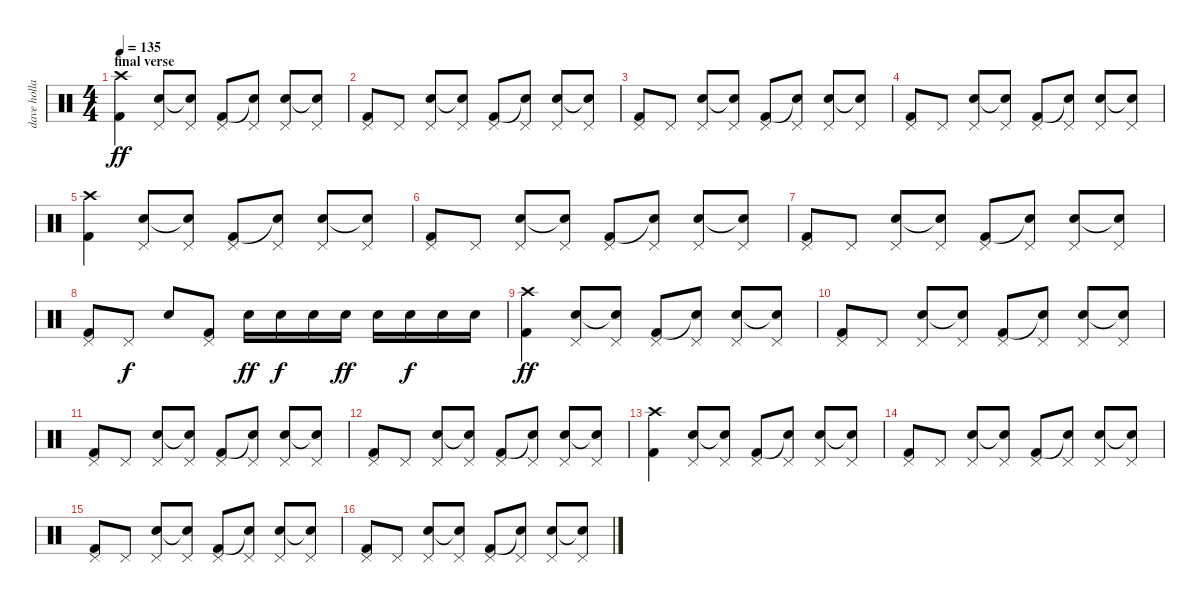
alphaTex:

\track ("dave holland" "dave holla") {instrument percussion}
\staff {score}
\articulation defaults
\ts (4 4)
\section ("" "final verse")
\tempo 135
\clef neutral
\ks c
("Crash high (hit)" "Kick (hit) 2").4{dy ff} ("Pedal Hi-Hat (hit)" "Electric Snare (hit)").8 ("Pedal Hi-Hat (hit)" "Electric Snare (hit)"{t}).8 ("Pedal Hi-Hat (hit)" "Kick (hit) 2").8 ("Pedal Hi-Hat (hit)" "Snare (hit)"{t}).8 ("Pedal Hi-Hat (hit)" "Electric Snare (hit)").8 ("Pedal Hi-Hat (hit)" "Snare (hit)"{t}).8 |
("Pedal Hi-Hat (hit)" "Kick (hit) 2").8 "Pedal Hi-Hat (hit)".8 ("Pedal Hi-Hat (hit)" "Electric Snare (hit)").8 ("Pedal Hi-Hat (hit)" "Electric Snare (hit)"{t}).8 ("Pedal Hi-Hat (hit)" "Kick (hit) 2").8 ("Pedal Hi-Hat (hit)" "Snare (hit)"{t}).8 ("Pedal Hi-Hat (hit)" "Electric Snare (hit)").8 ("Pedal Hi-Hat (hit)" "Snare (hit)"{t}).8 |
("Pedal Hi-Hat (hit)" "Kick (hit) 2").8 "Pedal Hi-Hat (hit)".8 ("Pedal Hi-Hat (hit)" "Electric Snare (hit)").8 ("Pedal Hi-Hat (hit)" "Electric Snare (hit)"{t}).8 ("Pedal Hi-Hat (hit)" "Kick (hit) 2").8 ("Pedal Hi-Hat (hit)" "Snare (hit)"{t}).8 ("Pedal Hi-Hat (hit)" "Electric Snare (hit)").8 ("Pedal Hi-Hat (hit)" "Snare (hit)"{t}).8 |
("Pedal Hi-Hat (hit)" "Kick (hit) 2").8 "Pedal Hi-Hat (hit)".8 ("Pedal Hi-Hat (hit)" "Electric Snare (hit)").8 ("Pedal Hi-Hat (hit)" "Electric Snare (hit)"{t}).8 ("Pedal Hi-Hat (hit)" "Kick (hit) 2").8 ("Pedal Hi-Hat (hit)" "Snare (hit)"{t}).8 ("Pedal Hi-Hat (hit)" "Electric Snare (hit)").8 ("Pedal Hi-Hat (hit)" "Snare (hit)"{t}).8 |
("Crash high (hit)" "Kick (hit) 2").4 ("Pedal Hi-Hat (hit)" "Electric Snare (hit)").8 ("Pedal Hi-Hat (hit)" "Electric Snare (hit)"{t}).8 ("Pedal Hi-Hat (hit)" "Kick (hit) 2").8 ("Pedal Hi-Hat (hit)" "Snare (hit)"{t}).8 ("Pedal Hi-Hat (hit)" "Electric Snare (hit)").8 ("Pedal Hi-Hat (hit)" "Snare (hit)"{t}).8 |
("Pedal Hi-Hat (hit)" "Kick (hit) 2").8 "Pedal Hi-Hat (hit)".8 ("Pedal Hi-Hat (hit)" "Electric Snare (hit)").8 ("Pedal Hi-Hat (hit)" "Electric Snare (hit)"{t}).8 ("Pedal Hi-Hat (hit)" "Kick (hit) 2").8 ("Pedal Hi-Hat (hit)" "Snare (hit)"{t}).8 ("Pedal Hi-Hat (hit)" "Electric Snare (hit)").8 ("Pedal Hi-Hat (hit)" "Snare (hit)"{t}).8 |
("Pedal Hi-Hat (hit)" "Kick (hit) 2").8 "Pedal Hi-Hat (hit)".8 ("Pedal Hi-Hat (hit)" "Electric Snare (hit)").8 ("Pedal Hi-Hat (hit)" "Electric Snare (hit)"{t}).8 ("Pedal Hi-Hat (hit)" "Kick (hit) 2").8 ("Pedal Hi-Hat (hit)" "Snare (hit)"{t}).8 ("Pedal Hi-Hat (hit)" "Electric Snare (hit)").8 ("Pedal Hi-Hat (hit)" "Snare (hit)"{t}).8 |
("Pedal Hi-Hat (hit)" "Kick (hit) 2").8 "Pedal Hi-Hat (hit)".8{dy f} "Electric Snare (hit)".8 ("Pedal Hi-Hat (hit)" "Kick (hit) 2").8 "Electric Snare (hit)".16{dy ff} "Electric Snare (hit)".16{dy f} "Electric Snare (hit)".16 "Electric Snare (hit)".16{dy ff} "Electric Snare (hit)".16 "Electric Snare (hit)".16{dy f} "Electric Snare (hit)".16 "Electric Snare (hit)".16 |
("Crash high (hit)" "Kick (hit) 2").4{dy ff} ("Pedal Hi-Hat (hit)" "Electric Snare (hit)").8 ("Pedal Hi-Hat (hit)" "Electric Snare (hit)"{t}).8 ("Pedal Hi-Hat (hit)" "Kick (hit) 2").8 ("Pedal Hi-Hat (hit)" "Snare (hit)"{t}).8 ("Pedal Hi-Hat (hit)" "Electric Snare (hit)").8 ("Pedal Hi-Hat (hit)" "Snare (hit)"{t}).8 |
("Pedal Hi-Hat (hit)" "Kick (hit) 2").8 "Pedal Hi-Hat (hit)".8 ("Pedal Hi-Hat (hit)" "Electric Snare (hit)").8 ("Pedal Hi-Hat (hit)" "Electric Snare (hit)"{t}).8 ("Pedal Hi-Hat (hit)" "Kick (hit) 2").8 ("Pedal Hi-Hat (hit)" "Snare (hit)"{t}).8 ("Pedal Hi-Hat (hit)" "Electric Snare (hit)").8 ("Pedal Hi-Hat (hit)" "Snare (hit)"{t}).8 |
("Pedal Hi-Hat (hit)" "Kick (hit) 2").8 "Pedal Hi-Hat (hit)".8 ("Pedal Hi-Hat (hit)" "Electric Snare (hit)").8 ("Pedal Hi-Hat (hit)" "Electric Snare (hit)"{t}).8 ("Pedal Hi-Hat (hit)" "Kick (hit) 2").8 ("Pedal Hi-Hat (hit)" "Snare (hit)"{t}).8 ("Pedal Hi-Hat (hit)" "Electric Snare (hit)").8 ("Pedal Hi-Hat (hit)" "Snare (hit)"{t}).8 |
("Pedal Hi-Hat (hit)" "Kick (hit) 2").8 "Pedal Hi-Hat (hit)".8 ("Pedal Hi-Hat (hit)" "Electric Snare (hit)").8 ("Pedal Hi-Hat (hit)" "Electric Snare (hit)"{t}).8 ("Pedal Hi-Hat (hit)" "Kick (hit) 2").8 ("Pedal Hi-Hat (hit)" "Snare (hit)"{t}).8 ("Pedal Hi-Hat (hit)" "Electric Snare (hit)").8 ("Pedal Hi-Hat (hit)" "Snare (hit)"{t}).8 |
("Crash high (hit)" "Kick (hit) 2").4 ("Pedal Hi-Hat (hit)" "Electric Snare (hit)").8 ("Pedal Hi-Hat (hit)" "Electric Snare (hit)"{t}).8 ("Pedal Hi-Hat (hit)" "Kick (hit) 2").8 ("Pedal Hi-Hat (hit)" "Snare (hit)"{t}).8 ("Pedal Hi-Hat (hit)" "Electric Snare (hit)").8 ("Pedal Hi-Hat (hit)" "Snare (hit)"{t}).8 |
("Pedal Hi-Hat (hit)" "Kick (hit) 2").8 "Pedal Hi-Hat (hit)".8 ("Pedal Hi-Hat (hit)" "Electric Snare (hit)").8 ("Pedal Hi-Hat (hit)" "Electric Snare (hit)"{t}).8 ("Pedal Hi-Hat (hit)" "Kick (hit) 2").8 ("Pedal Hi-Hat (hit)" "Snare (hit)"{t}).8 ("Pedal Hi-Hat (hit)" "Electric Snare (hit)").8 ("Pedal Hi-Hat (hit)" "Snare (hit)"{t}).8 |
("Pedal Hi-Hat (hit)" "Kick (hit) 2").8 "Pedal Hi-Hat (hit)".8 ("Pedal Hi-Hat (hit)" "Electric Snare (hit)").8 ("Pedal Hi-Hat (hit)" "Electric Snare (hit)"{t}).8 ("Pedal Hi-Hat (hit)" "Kick (hit) 2").8 ("Pedal Hi-Hat (hit)" "Snare (hit)"{t}).8 ("Pedal Hi-Hat (hit)" "Electric Snare (hit)").8 ("Pedal Hi-Hat (hit)" "Snare (hit)"{t}).8 |
("Pedal Hi-Hat (hit)" "Kick (hit) 2").8 "Pedal Hi-Hat (hit)".8 ("Pedal Hi-Hat (hit)" "Electric Snare (hit)").8 ("Pedal Hi-Hat (hit)" "Electric Snare (hit)"{t}).8 ("Pedal Hi-Hat (hit)" "Kick (hit) 2").8 ("Pedal Hi-Hat (hit)" "Snare (hit)"{t}).8 ("Pedal Hi-Hat (hit)" "Electric Snare (hit)").8 ("Pedal Hi-Hat (hit)" "Snare (hit)"{t}).8
